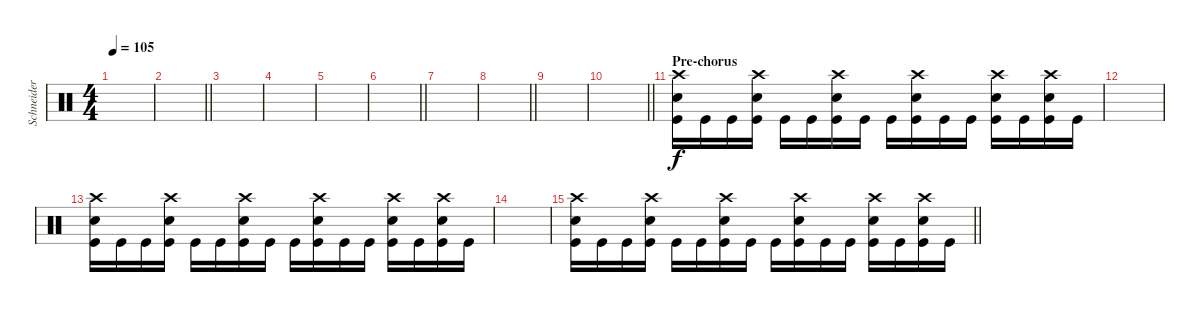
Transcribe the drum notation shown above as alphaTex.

\track ("Schneider" "Schneider") {instrument percussion}
\staff {score}
\articulation defaults
\ts (4 4)
\tempo 105
\clef neutral
\ks c
|
\barLineRight lightlight
|
|
|
|
\barLineRight lightlight
|
|
\barLineRight lightlight
|
|
\barLineRight lightlight
|
\section ("" "Pre-chorus")
("Crash high (hit)" "Electric Snare (hit)" "Kick (hit)").16 "Kick (hit)".16 "Kick (hit)".16 ("Crash high (hit)" "Electric Snare (hit)" "Kick (hit)").16 "Kick (hit)".16 "Kick (hit)".16 ("Crash high (hit)" "Electric Snare (hit)" "Kick (hit)").16 "Kick (hit)".16 "Kick (hit)".16 ("Crash high (hit)" "Electric Snare (hit)" "Kick (hit)").16 "Kick (hit)".16 "Kick (hit)".16 ("Crash high (hit)" "Electric Snare (hit)" "Kick (hit)").16 "Kick (hit)".16 ("Crash high (hit)" "Electric Snare (hit)" "Kick (hit)").16 "Kick (hit)".16 |
|
("Crash high (hit)" "Electric Snare (hit)" "Kick (hit)").16 "Kick (hit)".16 "Kick (hit)".16 ("Crash high (hit)" "Electric Snare (hit)" "Kick (hit)").16 "Kick (hit)".16 "Kick (hit)".16 ("Crash high (hit)" "Electric Snare (hit)" "Kick (hit)").16 "Kick (hit)".16 "Kick (hit)".16 ("Crash high (hit)" "Electric Snare (hit)" "Kick (hit)").16 "Kick (hit)".16 "Kick (hit)".16 ("Crash high (hit)" "Electric Snare (hit)" "Kick (hit)").16 "Kick (hit)".16 ("Crash high (hit)" "Electric Snare (hit)" "Kick (hit)").16 "Kick (hit)".16 |
|
\barLineRight lightlight
("Crash high (hit)" "Electric Snare (hit)" "Kick (hit)").16 "Kick (hit)".16 "Kick (hit)".16 ("Crash high (hit)" "Electric Snare (hit)" "Kick (hit)").16 "Kick (hit)".16 "Kick (hit)".16 ("Crash high (hit)" "Electric Snare (hit)" "Kick (hit)").16 "Kick (hit)".16 "Kick (hit)".16 ("Crash high (hit)" "Electric Snare (hit)" "Kick (hit)").16 "Kick (hit)".16 "Kick (hit)".16 ("Crash high (hit)" "Electric Snare (hit)" "Kick (hit)").16 "Kick (hit)".16 ("Crash high (hit)" "Electric Snare (hit)" "Kick (hit)").16 "Kick (hit)".16
